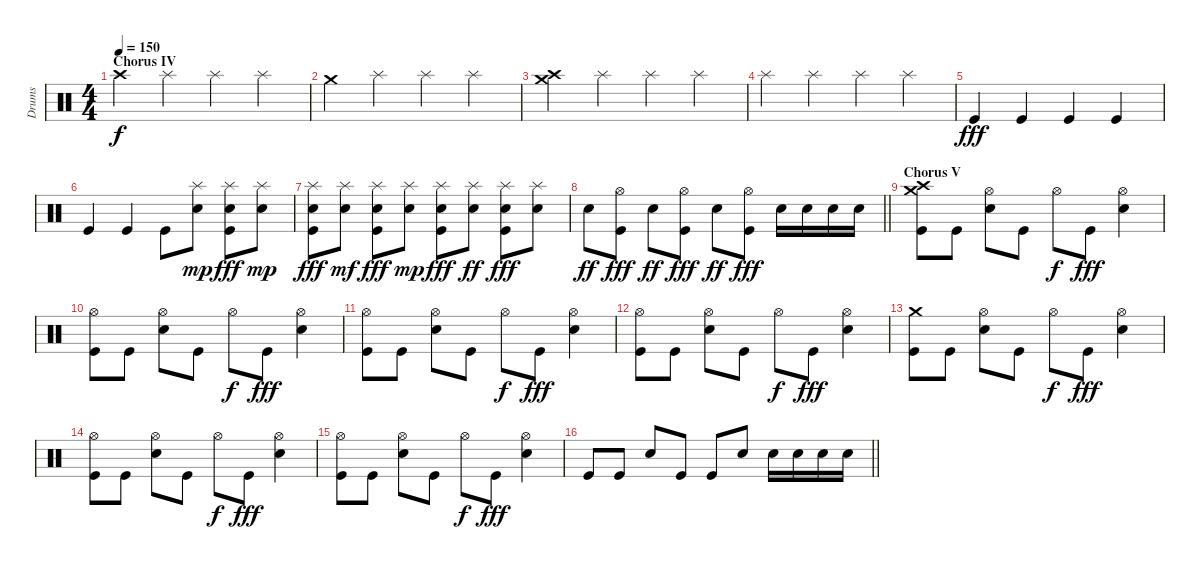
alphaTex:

\track ("Drums" "Drums") {instrument percussion}
\staff {score}
\articulation defaults
\ts (4 4)
\section ("" "Chorus IV")
\tempo 150
\clef neutral
\ks c "Crash high (hit)".4{dy f} "Splash (hit)".4 "Splash (hit)".4 "Splash (hit)".4
|
"Crash medium (hit)".4 "Splash (hit)".4 "Splash (hit)".4 "Splash (hit)".4 |
("Crash high (hit)" "Crash medium (hit)").4 "Splash (hit)".4 "Splash (hit)".4 "Splash (hit)".4 |
"Splash (hit)".4 "Splash (hit)".4 "Splash (hit)".4 "Splash (hit)".4 |
"Kick (hit)".4{dy fff} "Kick (hit)".4 "Kick (hit)".4 "Kick (hit)".4 |
"Kick (hit)".4 "Kick (hit)".4 "Kick (hit)".8 ("Splash (hit)" "Snare (hit) 2").8{dy mp} ("Splash (hit)" "Snare (hit) 2" "Kick (hit)").8{dy fff} ("Splash (hit)" "Snare (hit) 2").8{dy mp} |
("Splash (hit)" "Snare (hit) 2" "Kick (hit)").8{dy fff} ("Splash (hit)" "Snare (hit) 2").8{dy mf} ("Splash (hit)" "Snare (hit) 2" "Kick (hit)").8{dy fff} ("Splash (hit)" "Snare (hit) 2").8{dy mp} ("Splash (hit)" "Snare (hit) 2" "Kick (hit)").8{dy fff} ("Splash (hit)" "Snare (hit) 2").8{dy ff} ("Splash (hit)" "Snare (hit) 2" "Kick (hit)").8{dy fff} ("Splash (hit)" "Snare (hit) 2").8 |
\barLineRight lightlight "Snare (hit) 2".8{dy ff}
("Hi-Hat (open)" "Kick (hit)").8{dy fff} "Snare (hit) 2".8{dy ff} ("Hi-Hat (open)" "Kick (hit)").8{dy fff} "Snare (hit) 2".8{dy ff} ("Hi-Hat (open)" "Kick (hit)").8{dy fff} "Snare (hit) 2".16 "Snare (hit) 2".16 "Snare (hit) 2".16 "Snare (hit) 2".16 |
\section ("" "Chorus V")
("Crash high (hit)" "Crash medium (hit)" "Kick (hit)").8 "Kick (hit)".8 ("Hi-Hat (open)" "Snare (hit) 2").8 "Kick (hit)".8 "Hi-Hat (open)".8{dy f} "Kick (hit)".8{dy fff} ("Hi-Hat (open)" "Snare (hit) 2").4 |
("Hi-Hat (open)" "Kick (hit)").8 "Kick (hit)".8 ("Hi-Hat (open)" "Snare (hit) 2").8 "Kick (hit)".8 "Hi-Hat (open)".8{dy f} "Kick (hit)".8{dy fff} ("Hi-Hat (open)" "Snare (hit) 2").4 |
("Hi-Hat (open)" "Kick (hit)").8 "Kick (hit)".8 ("Hi-Hat (open)" "Snare (hit) 2").8 "Kick (hit)".8 "Hi-Hat (open)".8{dy f} "Kick (hit)".8{dy fff} ("Hi-Hat (open)" "Snare (hit) 2").4 |
("Hi-Hat (open)" "Kick (hit)").8 "Kick (hit)".8 ("Hi-Hat (open)" "Snare (hit) 2").8 "Kick (hit)".8 "Hi-Hat (open)".8{dy f} "Kick (hit)".8{dy fff} ("Hi-Hat (open)" "Snare (hit) 2").4 |
("Crash medium (hit)" "Kick (hit)").8 "Kick (hit)".8 ("Hi-Hat (open)" "Snare (hit) 2").8 "Kick (hit)".8 "Hi-Hat (open)".8{dy f} "Kick (hit)".8{dy fff} ("Hi-Hat (open)" "Snare (hit) 2").4 |
("Hi-Hat (open)" "Kick (hit)").8 "Kick (hit)".8 ("Hi-Hat (open)" "Snare (hit) 2").8 "Kick (hit)".8 "Hi-Hat (open)".8{dy f} "Kick (hit)".8{dy fff} ("Hi-Hat (open)" "Snare (hit) 2").4 |
("Hi-Hat (open)" "Kick (hit)").8 "Kick (hit)".8 ("Hi-Hat (open)" "Snare (hit) 2").8 "Kick (hit)".8 "Hi-Hat (open)".8{dy f} "Kick (hit)".8{dy fff} ("Hi-Hat (open)" "Snare (hit) 2").4 |
\barLineRight lightlight "Kick (hit)".8 "Kick (hit)".8 "Snare (hit) 2".8 "Kick (hit)".8 "Kick (hit)".8 "Snare (hit) 2".8 "Snare (hit) 2".16 "Snare (hit) 2".16 "Snare (hit) 2".16 "Snare (hit) 2".16
